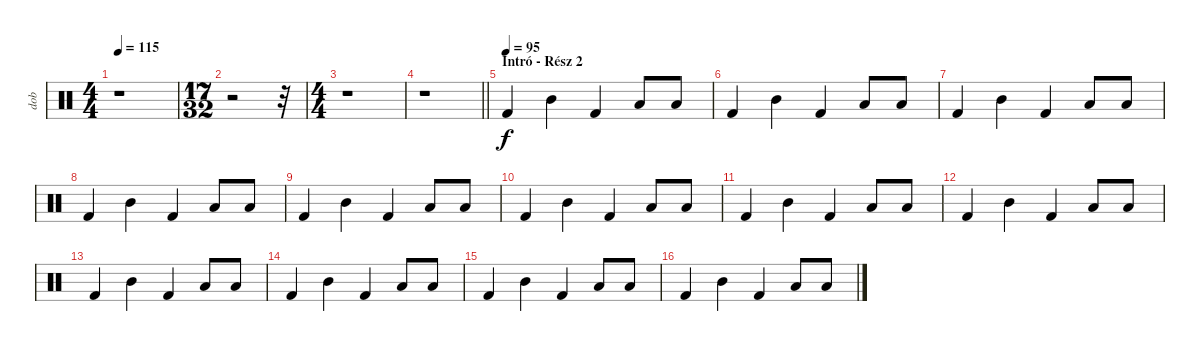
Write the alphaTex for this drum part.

\track ("dob" "dob") {instrument percussion}
\staff {score}
\articulation defaults
\ts (4 4)
\tempo 115
\clef neutral
\ks c
r.1{dy f} |
\ts (17 32)
r.2 r.32 |
\ts (4 4)
r.1 |
\barLineRight lightlight
r.1 |
\section ("" "Intró - Rész 2")
\tempo (95)
"Kick (hit) 2".4 "Mid Tom (hit)".4 "Kick (hit) 2".4 "Low Tom (hit)".8 "Low Tom (hit)".8 |
"Kick (hit) 2".4 "Mid Tom (hit)".4 "Kick (hit) 2".4 "Low Tom (hit)".8 "Low Tom (hit)".8 |
"Kick (hit) 2".4 "Mid Tom (hit)".4 "Kick (hit) 2".4 "Low Tom (hit)".8 "Low Tom (hit)".8 |
"Kick (hit) 2".4 "Mid Tom (hit)".4 "Kick (hit) 2".4 "Low Tom (hit)".8 "Low Tom (hit)".8 |
"Kick (hit) 2".4 "Mid Tom (hit)".4 "Kick (hit) 2".4 "Low Tom (hit)".8 "Low Tom (hit)".8 |
"Kick (hit) 2".4 "Mid Tom (hit)".4 "Kick (hit) 2".4 "Low Tom (hit)".8 "Low Tom (hit)".8 |
"Kick (hit) 2".4 "Mid Tom (hit)".4 "Kick (hit) 2".4 "Low Tom (hit)".8 "Low Tom (hit)".8 |
"Kick (hit) 2".4 "Mid Tom (hit)".4 "Kick (hit) 2".4 "Low Tom (hit)".8 "Low Tom (hit)".8 |
"Kick (hit) 2".4 "Mid Tom (hit)".4 "Kick (hit) 2".4 "Low Tom (hit)".8 "Low Tom (hit)".8 |
"Kick (hit) 2".4 "Mid Tom (hit)".4 "Kick (hit) 2".4 "Low Tom (hit)".8 "Low Tom (hit)".8 |
"Kick (hit) 2".4 "Mid Tom (hit)".4 "Kick (hit) 2".4 "Low Tom (hit)".8 "Low Tom (hit)".8 |
"Kick (hit) 2".4 "Mid Tom (hit)".4 "Kick (hit) 2".4 "Low Tom (hit)".8 "Low Tom (hit)".8
